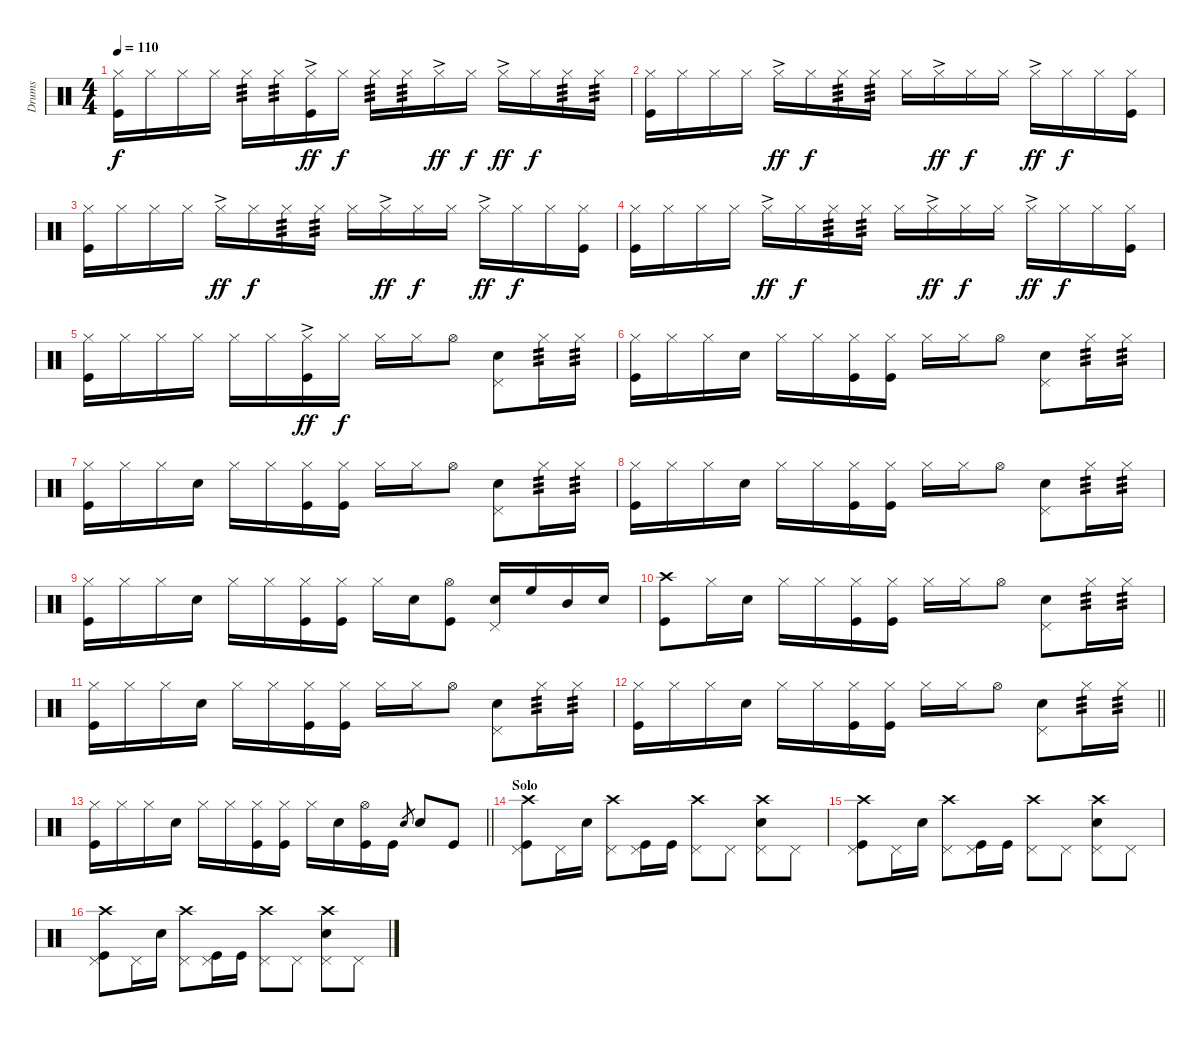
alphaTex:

\track ("Drums" "Drums") {instrument percussion}
\staff {score}
\articulation defaults
\ts (4 4)
\tempo 110
\clef neutral
\ks c
("Hi-Hat (closed)" "Kick (hit)").16{dy f} "Hi-Hat (closed)".16 "Hi-Hat (closed)".16 "Hi-Hat (closed)".16 "Hi-Hat (closed)".16{tp 3} "Hi-Hat (closed)".16{tp 3} ("Hi-Hat (closed)"{ac} "Kick (hit)").16{dy ff} "Hi-Hat (closed)".16{dy f} "Hi-Hat (closed)".16{tp 3} "Hi-Hat (closed)".16{tp 3} "Hi-Hat (closed)"{ac}.16{dy ff} "Hi-Hat (closed)".16{dy f} "Hi-Hat (closed)"{ac}.16{dy ff} "Hi-Hat (closed)".16{dy f} "Hi-Hat (closed)".16{tp 3} "Hi-Hat (closed)".16{tp 3} |
("Hi-Hat (closed)" "Kick (hit)").16 "Hi-Hat (closed)".16 "Hi-Hat (closed)".16 "Hi-Hat (closed)".16 "Hi-Hat (closed)"{ac}.16{dy ff} "Hi-Hat (closed)".16{dy f} "Hi-Hat (closed)".16{tp 3} "Hi-Hat (closed)".16{tp 3} "Hi-Hat (closed)".16 "Hi-Hat (closed)"{ac}.16{dy ff} "Hi-Hat (closed)".16{dy f} "Hi-Hat (closed)".16 "Hi-Hat (closed)"{ac}.16{dy ff} "Hi-Hat (closed)".16{dy f} "Hi-Hat (closed)".16 ("Hi-Hat (closed)" "Kick (hit)").16 |
("Hi-Hat (closed)" "Kick (hit)").16 "Hi-Hat (closed)".16 "Hi-Hat (closed)".16 "Hi-Hat (closed)".16 "Hi-Hat (closed)"{ac}.16{dy ff} "Hi-Hat (closed)".16{dy f} "Hi-Hat (closed)".16{tp 3} "Hi-Hat (closed)".16{tp 3} "Hi-Hat (closed)".16 "Hi-Hat (closed)"{ac}.16{dy ff} "Hi-Hat (closed)".16{dy f} "Hi-Hat (closed)".16 "Hi-Hat (closed)"{ac}.16{dy ff} "Hi-Hat (closed)".16{dy f} "Hi-Hat (closed)".16 ("Hi-Hat (closed)" "Kick (hit)").16 |
("Hi-Hat (closed)" "Kick (hit)").16 "Hi-Hat (closed)".16 "Hi-Hat (closed)".16 "Hi-Hat (closed)".16 "Hi-Hat (closed)"{ac}.16{dy ff} "Hi-Hat (closed)".16{dy f} "Hi-Hat (closed)".16{tp 3} "Hi-Hat (closed)".16{tp 3} "Hi-Hat (closed)".16 "Hi-Hat (closed)"{ac}.16{dy ff} "Hi-Hat (closed)".16{dy f} "Hi-Hat (closed)".16 "Hi-Hat (closed)"{ac}.16{dy ff} "Hi-Hat (closed)".16{dy f} "Hi-Hat (closed)".16 ("Hi-Hat (closed)" "Kick (hit)").16 |
("Hi-Hat (closed)" "Kick (hit)").16 "Hi-Hat (closed)".16 "Hi-Hat (closed)".16 "Hi-Hat (closed)".16 "Hi-Hat (closed)".16 "Hi-Hat (closed)".16 ("Hi-Hat (closed)"{ac} "Kick (hit)").16{dy ff} "Hi-Hat (closed)".16{dy f} "Hi-Hat (closed)".16 "Hi-Hat (closed)".16 "Hi-Hat (open)".8 ("Electric Snare (hit)" "Pedal Hi-Hat (hit)").8 "Hi-Hat (closed)".16{tp 3} "Hi-Hat (closed)".16{tp 3} |
("Kick (hit)" "Hi-Hat (closed)").16 "Hi-Hat (closed)".16 "Hi-Hat (closed)".16 "Electric Snare (hit)".16 "Hi-Hat (closed)".16 "Hi-Hat (closed)".16 ("Hi-Hat (closed)" "Kick (hit)").16 ("Hi-Hat (closed)" "Kick (hit)").16 "Hi-Hat (closed)".16 "Hi-Hat (closed)".16 "Hi-Hat (open)".8 ("Electric Snare (hit)" "Pedal Hi-Hat (hit)").8 "Hi-Hat (closed)".16{tp 3} "Hi-Hat (closed)".16{tp 3} |
("Kick (hit)" "Hi-Hat (closed)").16 "Hi-Hat (closed)".16 "Hi-Hat (closed)".16 "Electric Snare (hit)".16 "Hi-Hat (closed)".16 "Hi-Hat (closed)".16 ("Hi-Hat (closed)" "Kick (hit)").16 ("Hi-Hat (closed)" "Kick (hit)").16 "Hi-Hat (closed)".16 "Hi-Hat (closed)".16 "Hi-Hat (open)".8 ("Electric Snare (hit)" "Pedal Hi-Hat (hit)").8 "Hi-Hat (closed)".16{tp 3} "Hi-Hat (closed)".16{tp 3} |
("Kick (hit)" "Hi-Hat (closed)").16 "Hi-Hat (closed)".16 "Hi-Hat (closed)".16 "Electric Snare (hit)".16 "Hi-Hat (closed)".16 "Hi-Hat (closed)".16 ("Hi-Hat (closed)" "Kick (hit)").16 ("Hi-Hat (closed)" "Kick (hit)").16 "Hi-Hat (closed)".16 "Hi-Hat (closed)".16 "Hi-Hat (open)".8 ("Electric Snare (hit)" "Pedal Hi-Hat (hit)").8 "Hi-Hat (closed)".16{tp 3} "Hi-Hat (closed)".16{tp 3} |
("Kick (hit)" "Hi-Hat (closed)").16 "Hi-Hat (closed)".16 "Hi-Hat (closed)".16 "Electric Snare (hit)".16 "Hi-Hat (closed)".16 "Hi-Hat (closed)".16 ("Hi-Hat (closed)" "Kick (hit)").16 ("Hi-Hat (closed)" "Kick (hit)").16 "Hi-Hat (closed)".16 "Electric Snare (hit)".16 ("Hi-Hat (open)" "Kick (hit)").8 ("Electric Snare (hit)" "Pedal Hi-Hat (hit)").16 "High Floor Tom (hit)".16 "Mid Tom (hit)".16 "Electric Snare (hit)".16 |
("Kick (hit)" "Crash high (hit)").8 "Hi-Hat (closed)".16 "Electric Snare (hit)".16 "Hi-Hat (closed)".16 "Hi-Hat (closed)".16 ("Hi-Hat (closed)" "Kick (hit)").16 ("Hi-Hat (closed)" "Kick (hit)").16 "Hi-Hat (closed)".16 "Hi-Hat (closed)".16 "Hi-Hat (open)".8 ("Electric Snare (hit)" "Pedal Hi-Hat (hit)").8 "Hi-Hat (closed)".16{tp 3} "Hi-Hat (closed)".16{tp 3} |
("Kick (hit)" "Hi-Hat (closed)").16 "Hi-Hat (closed)".16 "Hi-Hat (closed)".16 "Electric Snare (hit)".16 "Hi-Hat (closed)".16 "Hi-Hat (closed)".16 ("Hi-Hat (closed)" "Kick (hit)").16 ("Hi-Hat (closed)" "Kick (hit)").16 "Hi-Hat (closed)".16 "Hi-Hat (closed)".16 "Hi-Hat (open)".8 ("Electric Snare (hit)" "Pedal Hi-Hat (hit)").8 "Hi-Hat (closed)".16{tp 3} "Hi-Hat (closed)".16{tp 3} |
\barLineRight lightlight
("Kick (hit)" "Hi-Hat (closed)").16 "Hi-Hat (closed)".16 "Hi-Hat (closed)".16 "Electric Snare (hit)".16 "Hi-Hat (closed)".16 "Hi-Hat (closed)".16 ("Hi-Hat (closed)" "Kick (hit)").16 ("Hi-Hat (closed)" "Kick (hit)").16 "Hi-Hat (closed)".16 "Hi-Hat (closed)".16 "Hi-Hat (open)".8 ("Electric Snare (hit)" "Pedal Hi-Hat (hit)").8 "Hi-Hat (closed)".16{tp 3} "Hi-Hat (closed)".16{tp 3} |
\barLineRight lightlight
("Kick (hit)" "Hi-Hat (closed)").16 "Hi-Hat (closed)".16 "Hi-Hat (closed)".16 "Electric Snare (hit)".16 "Hi-Hat (closed)".16 "Hi-Hat (closed)".16 ("Hi-Hat (closed)" "Kick (hit)").16 ("Hi-Hat (closed)" "Kick (hit)").16 "Hi-Hat (closed)".16 "Electric Snare (hit)".16 ("Hi-Hat (open)" "Kick (hit)").16 "Kick (hit)".16 "Electric Snare (hit)".8{gr} "Electric Snare (hit)".8 "Kick (hit)".8 |
\section ("" "Solo")
("Pedal Hi-Hat (hit)" "Kick (hit)" "Crash high (hit)").8 "Pedal Hi-Hat (hit)".16 "Electric Snare (hit)".16 ("Pedal Hi-Hat (hit)" "Crash high (hit)").8 ("Pedal Hi-Hat (hit)" "Kick (hit)").16 "Kick (hit)".16 ("Pedal Hi-Hat (hit)" "Crash high (hit)").8 "Pedal Hi-Hat (hit)".8 ("Pedal Hi-Hat (hit)" "Electric Snare (hit)" "Crash high (hit)").8 "Pedal Hi-Hat (hit)".8 |
("Pedal Hi-Hat (hit)" "Kick (hit)" "Crash high (hit)").8 "Pedal Hi-Hat (hit)".16 "Electric Snare (hit)".16 ("Pedal Hi-Hat (hit)" "Crash high (hit)").8 ("Pedal Hi-Hat (hit)" "Kick (hit)").16 "Kick (hit)".16 ("Pedal Hi-Hat (hit)" "Crash high (hit)").8 "Pedal Hi-Hat (hit)".8 ("Pedal Hi-Hat (hit)" "Electric Snare (hit)" "Crash high (hit)").8 "Pedal Hi-Hat (hit)".8 |
("Pedal Hi-Hat (hit)" "Kick (hit)" "Crash high (hit)").8 "Pedal Hi-Hat (hit)".16 "Electric Snare (hit)".16 ("Pedal Hi-Hat (hit)" "Crash high (hit)").8 ("Pedal Hi-Hat (hit)" "Kick (hit)").16 "Kick (hit)".16 ("Pedal Hi-Hat (hit)" "Crash high (hit)").8 "Pedal Hi-Hat (hit)".8 ("Pedal Hi-Hat (hit)" "Electric Snare (hit)" "Crash high (hit)").8 "Pedal Hi-Hat (hit)".8
